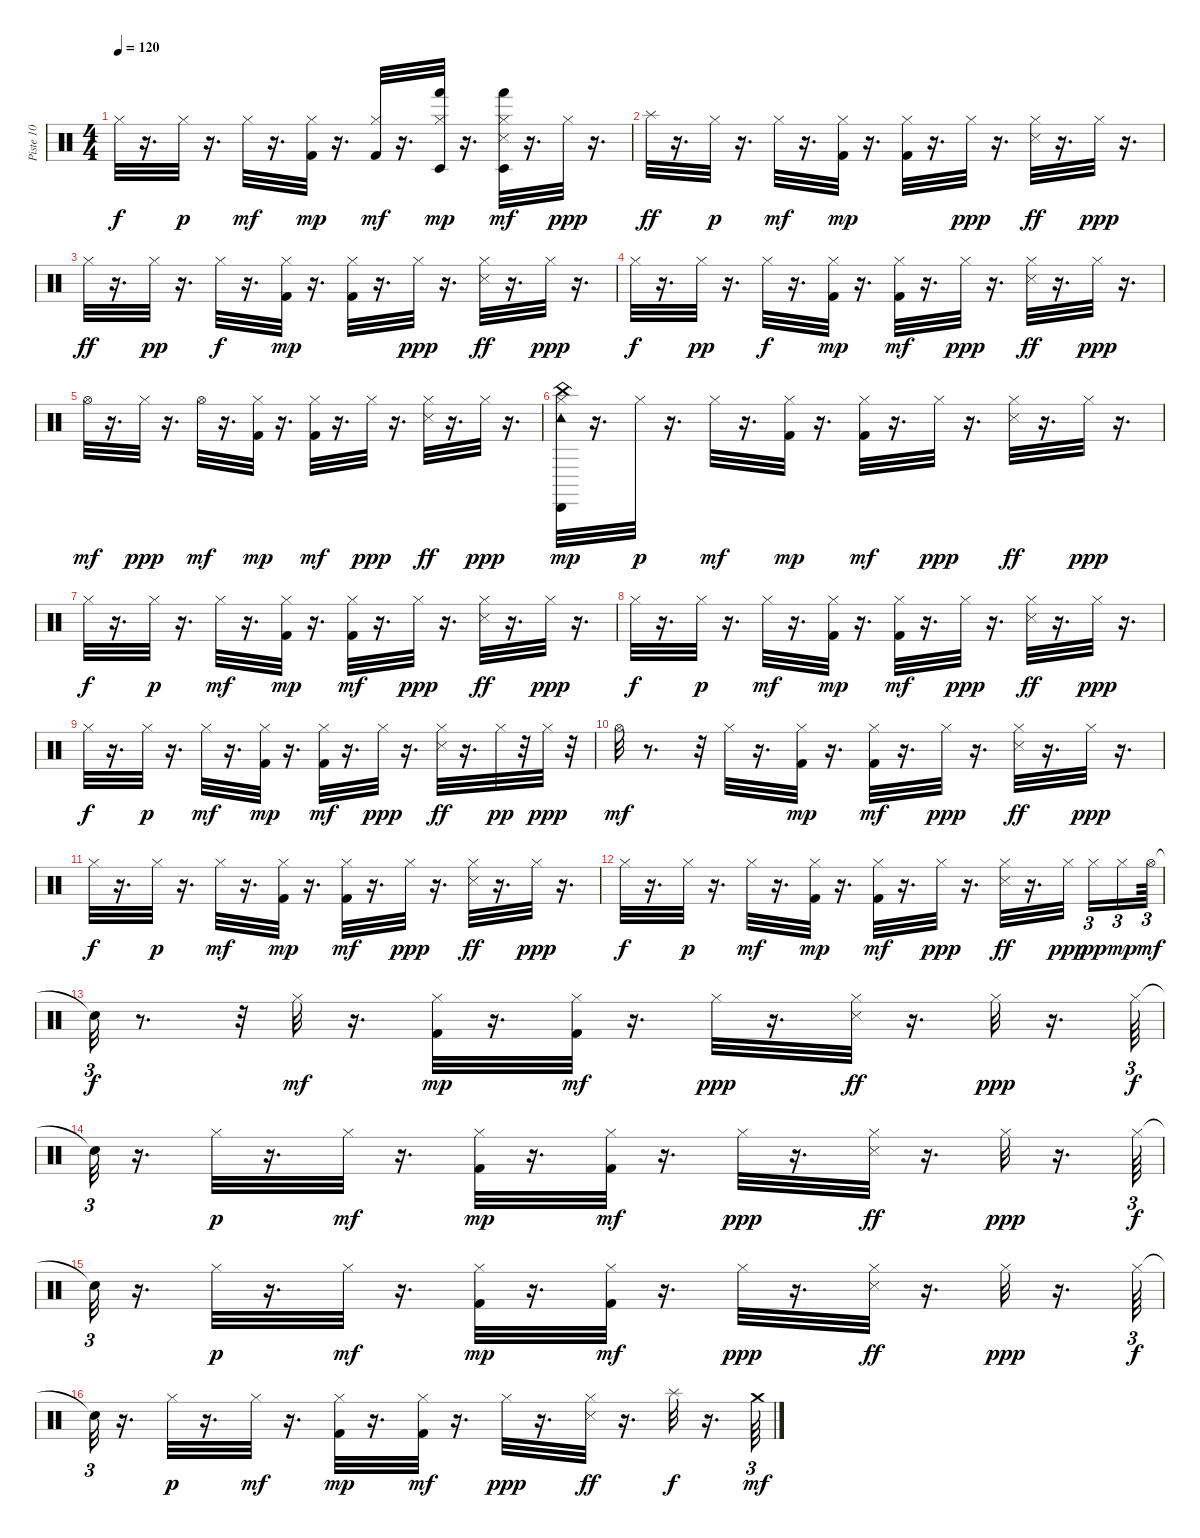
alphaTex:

\track ("Piste 10" "Piste 10") {instrument percussion}
\staff {score}
\articulation defaults
\ts (4 4)
\tempo 120
\clef neutral
\ks c "Hi-Hat (closed)".32{dy f}
r.16{d} "Hi-Hat (closed)".32{dy p} r.16{d} "Hi-Hat (closed)".32{dy mf} r.16{d} ("Hi-Hat (closed)" "Kick (hit) 2").32{dy mp} r.16{d} ("Hi-Hat (closed)" "Kick (hit) 2").32{dy mf} r.16{d} ("Hi-Hat (closed)" "Hand (hit)" "Timbale low (hit)").32{dy mp} r.16{d} ("Hi-Hat (closed)" "Snare (side stick) 3" "Timbale low (hit)" "Hand (hit)").32{dy mf} r.16{d} "Hi-Hat (closed)".32{dy ppp} r.16{d} |
"Splash (hit)".32{dy ff} r.16{d} "Hi-Hat (closed)".32{dy p} r.16{d} "Hi-Hat (closed)".32{dy mf} r.16{d} ("Hi-Hat (closed)" "Kick (hit) 2").32{dy mp} r.16{d} ("Hi-Hat (closed)" "Kick (hit) 2").32 r.16{d} "Hi-Hat (closed)".32{dy ppp} r.16{d} ("Hi-Hat (closed)" "Snare (side stick) 3").32{dy ff} r.16{d} "Hi-Hat (closed)".32{dy ppp} r.16{d} |
"Hi-Hat (closed)".32{dy ff} r.16{d} "Hi-Hat (closed)".32{dy pp} r.16{d} "Hi-Hat (closed)".32{dy f} r.16{d} ("Hi-Hat (closed)" "Kick (hit) 2").32{dy mp} r.16{d} ("Hi-Hat (closed)" "Kick (hit) 2").32 r.16{d} "Hi-Hat (closed)".32{dy ppp} r.16{d} ("Hi-Hat (closed)" "Snare (side stick) 3").32{dy ff} r.16{d} "Hi-Hat (closed)".32{dy ppp} r.16{d} |
"Hi-Hat (closed)".32{dy f} r.16{d} "Hi-Hat (closed)".32{dy pp} r.16{d} "Hi-Hat (closed)".32{dy f} r.16{d} ("Hi-Hat (closed)" "Kick (hit) 2").32{dy mp} r.16{d} ("Hi-Hat (closed)" "Kick (hit) 2").32{dy mf} r.16{d} "Hi-Hat (closed)".32{dy ppp} r.16{d} ("Hi-Hat (closed)" "Snare (side stick) 3").32{dy ff} r.16{d} "Hi-Hat (closed)".32{dy ppp} r.16{d} |
"Hi-Hat (open)".32{dy mf} r.16{d} "Hi-Hat (closed)".32{dy ppp} r.16{d} "Hi-Hat (open)".32{dy mf} r.16{d} ("Hi-Hat (closed)" "Kick (hit) 2").32{dy mp} r.16{d} ("Hi-Hat (closed)" "Kick (hit) 2").32{dy mf} r.16{d} "Hi-Hat (closed)".32{dy ppp} r.16{d} ("Hi-Hat (closed)" "Snare (side stick) 3").32{dy ff} r.16{d} "Hi-Hat (closed)".32{dy ppp} r.16{d} |
("Hi-Hat (closed)" "Tambourine (hit)" "Cabasa (hit)" "China (hit)").32{dy mp} r.16{d} "Hi-Hat (closed)".32{dy p} r.16{d} "Hi-Hat (closed)".32{dy mf} r.16{d} ("Hi-Hat (closed)" "Kick (hit) 2").32{dy mp} r.16{d} ("Hi-Hat (closed)" "Kick (hit) 2").32{dy mf} r.16{d} "Hi-Hat (closed)".32{dy ppp} r.16{d} ("Hi-Hat (closed)" "Snare (side stick) 3").32{dy ff} r.16{d} "Hi-Hat (closed)".32{dy ppp} r.16{d} |
"Hi-Hat (closed)".32{dy f} r.16{d} "Hi-Hat (closed)".32{dy p} r.16{d} "Hi-Hat (closed)".32{dy mf} r.16{d} ("Hi-Hat (closed)" "Kick (hit) 2").32{dy mp} r.16{d} ("Hi-Hat (closed)" "Kick (hit) 2").32{dy mf} r.16{d} "Hi-Hat (closed)".32{dy ppp} r.16{d} ("Hi-Hat (closed)" "Snare (side stick) 3").32{dy ff} r.16{d} "Hi-Hat (closed)".32{dy ppp} r.16{d} |
"Hi-Hat (closed)".32{dy f} r.16{d} "Hi-Hat (closed)".32{dy p} r.16{d} "Hi-Hat (closed)".32{dy mf} r.16{d} ("Hi-Hat (closed)" "Kick (hit) 2").32{dy mp} r.16{d} ("Hi-Hat (closed)" "Kick (hit) 2").32{dy mf} r.16{d} "Hi-Hat (closed)".32{dy ppp} r.16{d} ("Hi-Hat (closed)" "Snare (side stick) 3").32{dy ff} r.16{d} "Hi-Hat (closed)".32{dy ppp} r.16{d} |
"Hi-Hat (closed)".32{dy f} r.16{d} "Hi-Hat (closed)".32{dy p} r.16{d} "Hi-Hat (closed)".32{dy mf} r.16{d} ("Hi-Hat (closed)" "Kick (hit) 2").32{dy mp} r.16{d} ("Hi-Hat (closed)" "Kick (hit) 2").32{dy mf} r.16{d} "Hi-Hat (closed)".32{dy ppp} r.16{d} ("Hi-Hat (closed)" "Snare (side stick) 3").32{dy ff} r.16{d} "Hi-Hat (closed)".32{dy pp} r.32 "Hi-Hat (closed)".32{dy ppp} r.32 |
"Hi-Hat (open)".32{dy mf} r.8{d} r.32 "Hi-Hat (closed)".32 r.16{d} ("Hi-Hat (closed)" "Kick (hit) 2").32{dy mp} r.16{d} ("Hi-Hat (closed)" "Kick (hit) 2").32{dy mf} r.16{d} "Hi-Hat (closed)".32{dy ppp} r.16{d} ("Hi-Hat (closed)" "Snare (side stick) 3").32{dy ff} r.16{d} "Hi-Hat (closed)".32{dy ppp} r.16{d} |
"Hi-Hat (closed)".32{dy f} r.16{d} "Hi-Hat (closed)".32{dy p} r.16{d} "Hi-Hat (closed)".32{dy mf} r.16{d} ("Hi-Hat (closed)" "Kick (hit) 2").32{dy mp} r.16{d} ("Hi-Hat (closed)" "Kick (hit) 2").32{dy mf} r.16{d} "Hi-Hat (closed)".32{dy ppp} r.16{d} ("Hi-Hat (closed)" "Snare (side stick) 3").32{dy ff} r.16{d} "Hi-Hat (closed)".32{dy ppp} r.16{d} |
"Hi-Hat (closed)".32{dy f} r.16{d} "Hi-Hat (closed)".32{dy p} r.16{d} "Hi-Hat (closed)".32{dy mf} r.16{d} ("Hi-Hat (closed)" "Kick (hit) 2").32{dy mp} r.16{d} ("Hi-Hat (closed)" "Kick (hit) 2").32{dy mf} r.16{d} "Hi-Hat (closed)".32{dy ppp} r.16{d} ("Hi-Hat (closed)" "Snare (side stick) 3").32{dy ff} r.16{d} "Hi-Hat (closed)".32{dy ppp} "Hi-Hat (closed)".16{tu (3 2) dy pp} "Hi-Hat (closed)".16{tu (3 2) dy mp} "Hi-Hat (open)".64{tu (3 2) dy mf} |
"Snare (hit)"{t}.32{tu (3 2) dy f} r.8{d} r.32 "Hi-Hat (closed)".32{dy mf} r.16{d} ("Hi-Hat (closed)" "Kick (hit) 2").32{dy mp} r.16{d} ("Hi-Hat (closed)" "Kick (hit) 2").32{dy mf} r.16{d} "Hi-Hat (closed)".32{dy ppp} r.16{d} ("Hi-Hat (closed)" "Snare (side stick) 3").32{dy ff} r.16{d} "Hi-Hat (closed)".32{dy ppp} r.16{d} "Hi-Hat (closed)".64{tu (3 2) dy f} |
"Snare (hit)"{t}.32{tu (3 2)} r.16{d} "Hi-Hat (closed)".32{dy p} r.16{d} "Hi-Hat (closed)".32{dy mf} r.16{d} ("Hi-Hat (closed)" "Kick (hit) 2").32{dy mp} r.16{d} ("Hi-Hat (closed)" "Kick (hit) 2").32{dy mf} r.16{d} "Hi-Hat (closed)".32{dy ppp} r.16{d} ("Hi-Hat (closed)" "Snare (side stick) 3").32{dy ff} r.16{d} "Hi-Hat (closed)".32{dy ppp} r.16{d} "Hi-Hat (closed)".64{tu (3 2) dy f} |
"Snare (hit)"{t}.32{tu (3 2)} r.16{d} "Hi-Hat (closed)".32{dy p} r.16{d} "Hi-Hat (closed)".32{dy mf} r.16{d} ("Hi-Hat (closed)" "Kick (hit) 2").32{dy mp} r.16{d} ("Hi-Hat (closed)" "Kick (hit) 2").32{dy mf} r.16{d} "Hi-Hat (closed)".32{dy ppp} r.16{d} ("Hi-Hat (closed)" "Snare (side stick) 3").32{dy ff} r.16{d} "Hi-Hat (closed)".32{dy ppp} r.16{d} "Hi-Hat (closed)".64{tu (3 2) dy f} |
"Snare (hit)"{t}.32{tu (3 2)} r.16{d} "Hi-Hat (closed)".32{dy p} r.16{d} "Hi-Hat (closed)".32{dy mf} r.16{d} ("Hi-Hat (closed)" "Kick (hit) 2").32{dy mp} r.16{d} ("Hi-Hat (closed)" "Kick (hit) 2").32{dy mf} r.16{d} "Hi-Hat (closed)".32{dy ppp} r.16{d} ("Hi-Hat (closed)" "Snare (side stick) 3").32{dy ff} r.16{d} "Splash (hit)".32{dy f} r.16{d} "Crash medium (hit)".64{tu (3 2) dy mf}
